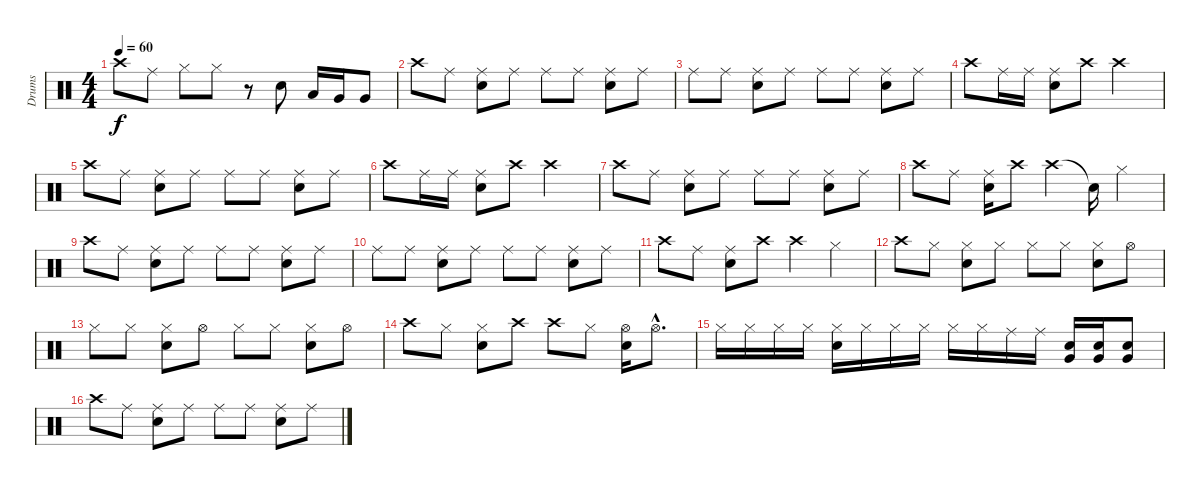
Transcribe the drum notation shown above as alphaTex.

\track ("Drums" "Drums") {instrument percussion}
\staff {score}
\articulation defaults
\ts (4 4)
\tempo 60
\clef neutral
\ks c "Crash high (hit)".8{dy f} "Ride (middle)".8 "Hi-Hat (closed)".8 "Hi-Hat (closed)".8
r.8 "Snare (hit) 2".8 "Low Tom (hit)".16 "Very Low Tom (hit)".16 "Very Low Tom (hit)".8 |
"Crash high (hit)".8 "Ride (middle)".8 ("Snare (hit) 2" "Ride (middle)").8 "Ride (middle)".8 "Ride (middle)".8 "Ride (middle)".8 ("Snare (hit) 2" "Ride (middle)").8 "Ride (middle)".8 |
"Ride (middle)".8 "Ride (middle)".8 ("Snare (hit) 2" "Ride (middle)").8 "Ride (middle)".8 "Ride (middle)".8 "Ride (middle)".8 ("Snare (hit) 2" "Ride (middle)").8 "Ride (middle)".8 |
"Crash high (hit)".8 "Ride (middle)".16 "Ride (middle)".16 ("Snare (hit) 2" "Ride (middle)").8 "Crash high (hit)".8 "Crash high (hit)".2 |
"Crash high (hit)".8 "Ride (middle)".8 ("Snare (hit) 2" "Ride (middle)").8 "Ride (middle)".8 "Ride (middle)".8 "Ride (middle)".8 ("Snare (hit) 2" "Ride (middle)").8 "Ride (middle)".8 |
"Crash high (hit)".8 "Ride (middle)".16 "Ride (middle)".16 ("Snare (hit) 2" "Ride (middle)").8 "Crash high (hit)".8 "Crash high (hit)".2 |
"Crash high (hit)".8 "Ride (middle)".8 ("Snare (hit) 2" "Ride (middle)").8 "Ride (middle)".8 "Ride (middle)".8 "Ride (middle)".8 ("Snare (hit) 2" "Ride (middle)").8 "Ride (middle)".8 |
"Crash high (hit)".8 "Ride (middle)".8 ("Snare (hit) 2" "Ride (middle)").16 "Crash high (hit)".8 "Crash high (hit)".4 "Snare (hit)"{t}.16 "Hi-Hat (closed)".4 |
"Crash high (hit)".8 "Ride (middle)".8 ("Snare (hit) 2" "Ride (middle)").8 "Ride (middle)".8 "Ride (middle)".8 "Ride (middle)".8 ("Snare (hit) 2" "Ride (middle)").8 "Ride (middle)".8 |
"Ride (middle)".8 "Ride (middle)".8 ("Snare (hit) 2" "Ride (middle)").8 "Ride (middle)".8 "Ride (middle)".8 "Ride (middle)".8 ("Snare (hit) 2" "Ride (middle)").8 "Ride (middle)".8 |
"Crash high (hit)".8 "Ride (middle)".8 ("Snare (hit) 2" "Ride (middle)").8 "Crash high (hit)".8 "Crash high (hit)".4 "Hi-Hat (closed)".4 |
"Crash high (hit)".8 "Hi-Hat (closed)".8 ("Snare (hit) 2" "Hi-Hat (closed)").8 "Hi-Hat (closed)".8 "Hi-Hat (closed)".8 "Hi-Hat (closed)".8 ("Snare (hit) 2" "Hi-Hat (closed)").8 "Hi-Hat (open)".8 |
"Hi-Hat (closed)".8 "Hi-Hat (closed)".8 ("Snare (hit) 2" "Hi-Hat (closed)").8 "Hi-Hat (open)".8 "Hi-Hat (closed)".8 "Hi-Hat (closed)".8 ("Snare (hit) 2" "Hi-Hat (closed)").8 "Hi-Hat (open)".8 |
"Crash high (hit)".8 "Hi-Hat (closed)".8 ("Snare (hit) 2" "Hi-Hat (closed)").8 "Crash high (hit)".8 "Crash high (hit)".8 "Hi-Hat (closed)".8 ("Snare (hit) 2" "Hi-Hat (open)").16 "Hi-Hat (open)"{hac}.8{d} |
"Hi-Hat (closed)".16 "Hi-Hat (closed)".16 "Hi-Hat (closed)".16 "Hi-Hat (closed)".16 ("Snare (hit) 2" "Hi-Hat (closed)").16 "Hi-Hat (closed)".16 "Hi-Hat (closed)".16 "Hi-Hat (closed)".16 "Hi-Hat (closed)".16 "Hi-Hat (closed)".16 "Ride (middle)".16 "Ride (middle)".16 ("Very Low Tom (hit)" "Snare (hit) 2").16 ("Very Low Tom (hit)" "Snare (hit) 2").16 ("Very Low Tom (hit)" "Snare (hit) 2").8 |
"Crash high (hit)".8 "Ride (middle)".8 ("Snare (hit) 2" "Ride (middle)").8 "Ride (middle)".8 "Ride (middle)".8 "Ride (middle)".8 ("Snare (hit) 2" "Ride (middle)").8 "Ride (middle)".8
